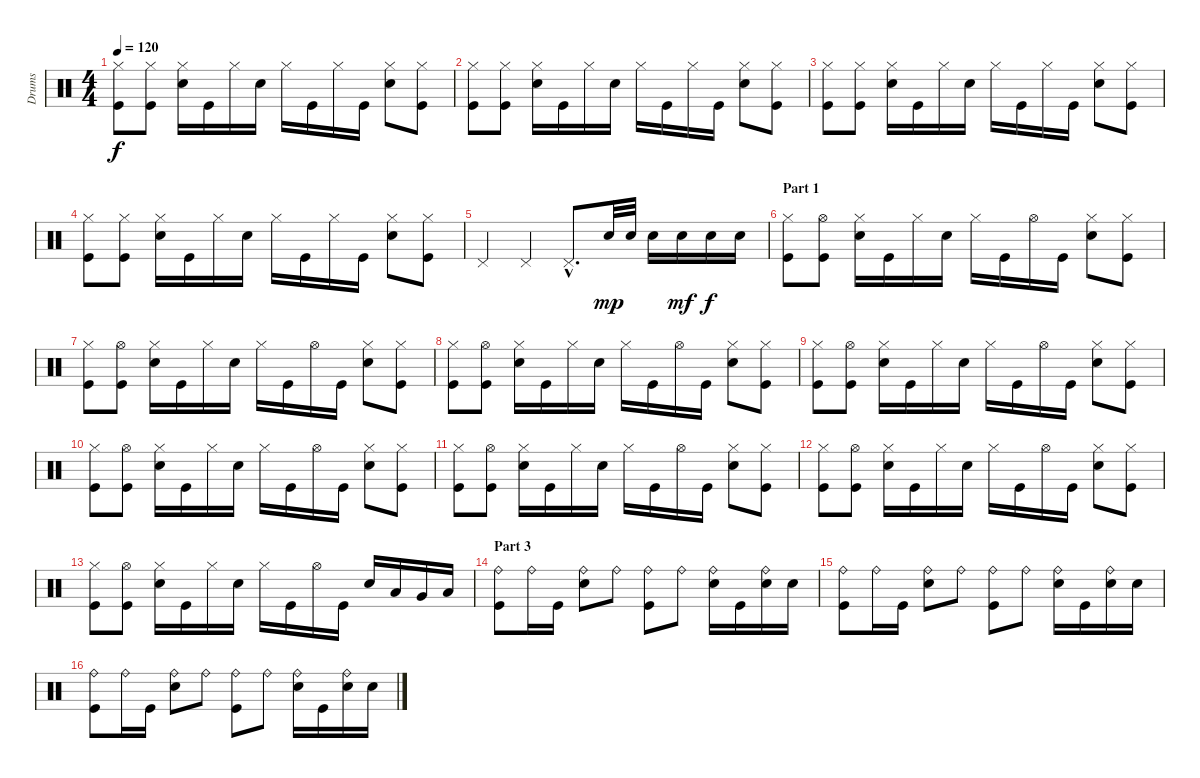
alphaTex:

\track ("Drums" "Drums") {instrument percussion}
\staff {score}
\articulation defaults
\ts (4 4)
\tempo 120
\clef neutral
\ks c
("Hi-Hat (closed)" "Kick (hit)").8{dy f} ("Hi-Hat (closed)" "Kick (hit)").8 ("Hi-Hat (closed)" "Snare (hit) 2").16 "Kick (hit)".16 "Hi-Hat (closed)".16 "Snare (hit) 2".16 "Hi-Hat (closed)".16 "Kick (hit)".16 "Hi-Hat (closed)".16 "Kick (hit)".16 ("Hi-Hat (closed)" "Snare (hit) 2").8 ("Hi-Hat (closed)" "Kick (hit)").8 |
("Hi-Hat (closed)" "Kick (hit)").8 ("Hi-Hat (closed)" "Kick (hit)").8 ("Hi-Hat (closed)" "Snare (hit) 2").16 "Kick (hit)".16 "Hi-Hat (closed)".16 "Snare (hit) 2".16 "Hi-Hat (closed)".16 "Kick (hit)".16 "Hi-Hat (closed)".16 "Kick (hit)".16 ("Hi-Hat (closed)" "Snare (hit) 2").8 ("Hi-Hat (closed)" "Kick (hit)").8 |
("Hi-Hat (closed)" "Kick (hit)").8 ("Hi-Hat (closed)" "Kick (hit)").8 ("Hi-Hat (closed)" "Snare (hit) 2").16 "Kick (hit)".16 "Hi-Hat (closed)".16 "Snare (hit) 2".16 "Hi-Hat (closed)".16 "Kick (hit)".16 "Hi-Hat (closed)".16 "Kick (hit)".16 ("Hi-Hat (closed)" "Snare (hit) 2").8 ("Hi-Hat (closed)" "Kick (hit)").8 |
("Hi-Hat (closed)" "Kick (hit)").8 ("Hi-Hat (closed)" "Kick (hit)").8 ("Hi-Hat (closed)" "Snare (hit) 2").16 "Kick (hit)".16 "Hi-Hat (closed)".16 "Snare (hit) 2".16 "Hi-Hat (closed)".16 "Kick (hit)".16 "Hi-Hat (closed)".16 "Kick (hit)".16 ("Hi-Hat (closed)" "Snare (hit) 2").8 ("Hi-Hat (closed)" "Kick (hit)").8 |
"Pedal Hi-Hat (hit)".4 "Pedal Hi-Hat (hit)".4 "Pedal Hi-Hat (hit)"{hac}.8{d} "Snare (hit) 2".32{dy mp} "Snare (hit) 2".32 "Snare (hit) 2".16 "Snare (hit) 2".16{dy mf} "Snare (hit) 2".16{dy f} "Snare (hit) 2".16 |
\section ("" "Part 1")
("Hi-Hat (closed)" "Kick (hit)").8 ("Hi-Hat (open)" "Kick (hit)").8 ("Hi-Hat (closed)" "Snare (hit) 2").16 "Kick (hit)".16 "Hi-Hat (closed)".16 "Snare (hit) 2".16 "Hi-Hat (closed)".16 "Kick (hit)".16 "Hi-Hat (open)".16 "Kick (hit)".16 ("Hi-Hat (closed)" "Snare (hit) 2").8 ("Hi-Hat (closed)" "Kick (hit)").8 |
("Hi-Hat (closed)" "Kick (hit)").8 ("Hi-Hat (open)" "Kick (hit)").8 ("Hi-Hat (closed)" "Snare (hit) 2").16 "Kick (hit)".16 "Hi-Hat (closed)".16 "Snare (hit) 2".16 "Hi-Hat (closed)".16 "Kick (hit)".16 "Hi-Hat (open)".16 "Kick (hit)".16 ("Hi-Hat (closed)" "Snare (hit) 2").8 ("Hi-Hat (closed)" "Kick (hit)").8 |
("Hi-Hat (closed)" "Kick (hit)").8 ("Hi-Hat (open)" "Kick (hit)").8 ("Hi-Hat (closed)" "Snare (hit) 2").16 "Kick (hit)".16 "Hi-Hat (closed)".16 "Snare (hit) 2".16 "Hi-Hat (closed)".16 "Kick (hit)".16 "Hi-Hat (open)".16 "Kick (hit)".16 ("Hi-Hat (closed)" "Snare (hit) 2").8 ("Hi-Hat (closed)" "Kick (hit)").8 |
("Hi-Hat (closed)" "Kick (hit)").8 ("Hi-Hat (open)" "Kick (hit)").8 ("Hi-Hat (closed)" "Snare (hit) 2").16 "Kick (hit)".16 "Hi-Hat (closed)".16 "Snare (hit) 2".16 "Hi-Hat (closed)".16 "Kick (hit)".16 "Hi-Hat (open)".16 "Kick (hit)".16 ("Hi-Hat (closed)" "Snare (hit) 2").8 ("Hi-Hat (closed)" "Kick (hit)").8 |
("Hi-Hat (closed)" "Kick (hit)").8 ("Hi-Hat (open)" "Kick (hit)").8 ("Hi-Hat (closed)" "Snare (hit) 2").16 "Kick (hit)".16 "Hi-Hat (closed)".16 "Snare (hit) 2".16 "Hi-Hat (closed)".16 "Kick (hit)".16 "Hi-Hat (open)".16 "Kick (hit)".16 ("Hi-Hat (closed)" "Snare (hit) 2").8 ("Hi-Hat (closed)" "Kick (hit)").8 |
("Hi-Hat (closed)" "Kick (hit)").8 ("Hi-Hat (open)" "Kick (hit)").8 ("Hi-Hat (closed)" "Snare (hit) 2").16 "Kick (hit)".16 "Hi-Hat (closed)".16 "Snare (hit) 2".16 "Hi-Hat (closed)".16 "Kick (hit)".16 "Hi-Hat (open)".16 "Kick (hit)".16 ("Hi-Hat (closed)" "Snare (hit) 2").8 ("Hi-Hat (closed)" "Kick (hit)").8 |
("Hi-Hat (closed)" "Kick (hit)").8 ("Hi-Hat (open)" "Kick (hit)").8 ("Hi-Hat (closed)" "Snare (hit) 2").16 "Kick (hit)".16 "Hi-Hat (closed)".16 "Snare (hit) 2".16 "Hi-Hat (closed)".16 "Kick (hit)".16 "Hi-Hat (open)".16 "Kick (hit)".16 ("Hi-Hat (closed)" "Snare (hit) 2").8 ("Hi-Hat (closed)" "Kick (hit)").8 |
("Hi-Hat (closed)" "Kick (hit)").8 ("Hi-Hat (open)" "Kick (hit)").8 ("Hi-Hat (closed)" "Snare (hit) 2").16 "Kick (hit)".16 "Hi-Hat (closed)".16 "Snare (hit) 2".16 "Hi-Hat (closed)".16 "Kick (hit)".16 "Hi-Hat (open)".16 "Kick (hit)".16 "Snare (hit) 2".16 "Low Tom (hit)".16 "Very Low Tom (hit)".16 "Low Floor Tom (hit)".16 |
\section ("" "Part 3")
("Ride (bell)" "Kick (hit)").8 "Ride (bell)".16 "Kick (hit)".16 ("Ride (bell)" "Snare (hit) 2").8 "Ride (bell)".8 ("Ride (bell)" "Kick (hit)").8 "Ride (bell)".8 ("Ride (bell)" "Snare (hit) 2").16 "Kick (hit)".16 ("Ride (bell)" "Snare (hit) 2").16 "Snare (hit) 2".16 |
("Ride (bell)" "Kick (hit)").8 "Ride (bell)".16 "Kick (hit)".16 ("Ride (bell)" "Snare (hit) 2").8 "Ride (bell)".8 ("Ride (bell)" "Kick (hit)").8 "Ride (bell)".8 ("Ride (bell)" "Snare (hit) 2").16 "Kick (hit)".16 ("Ride (bell)" "Snare (hit) 2").16 "Snare (hit) 2".16 |
("Ride (bell)" "Kick (hit)").8 "Ride (bell)".16 "Kick (hit)".16 ("Ride (bell)" "Snare (hit) 2").8 "Ride (bell)".8 ("Ride (bell)" "Kick (hit)").8 "Ride (bell)".8 ("Ride (bell)" "Snare (hit) 2").16 "Kick (hit)".16 ("Ride (bell)" "Snare (hit) 2").16 "Snare (hit) 2".16
